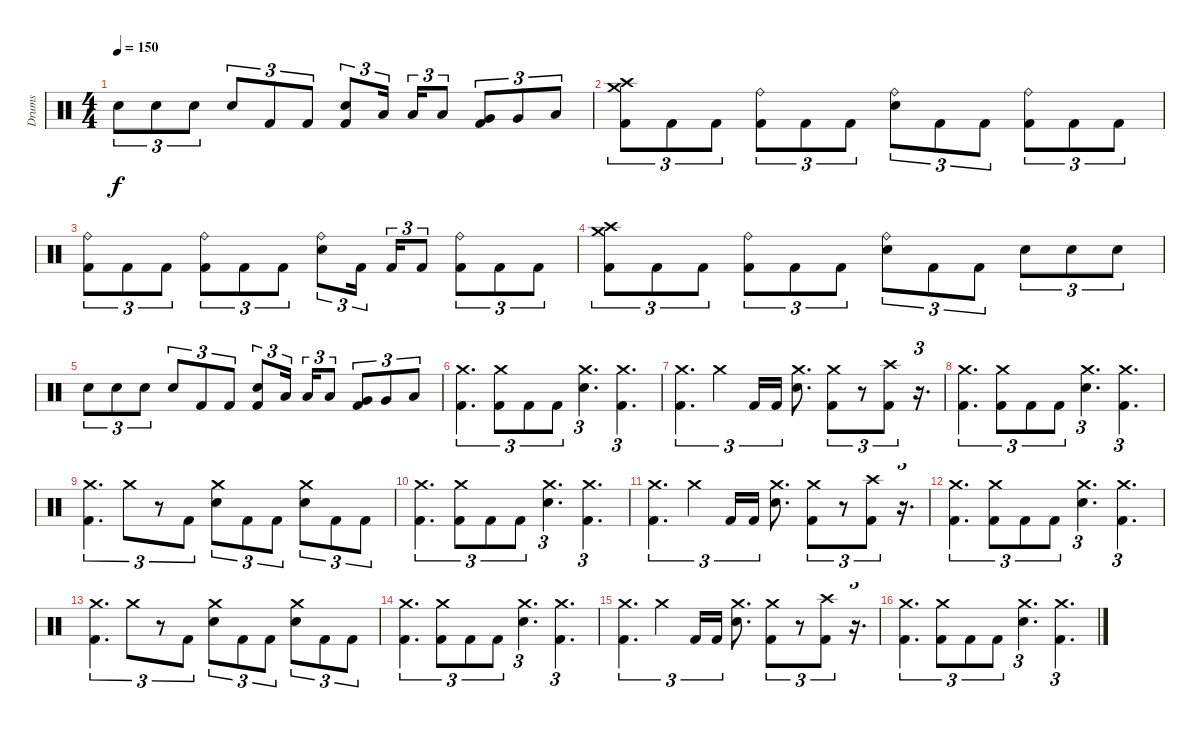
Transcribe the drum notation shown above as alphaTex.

\track ("Drums" "Drums") {instrument percussion}
\staff {score}
\articulation defaults
\ts (4 4)
\tempo 150
\clef neutral
\ks c "Electric Snare (hit)".8{tu (3 2) dy f} "Electric Snare (hit)".8{tu (3 2)} "Electric Snare (hit)".8{tu (3 2)} "Electric Snare (hit)".8{tu (3 2)} "Kick (hit) 2".8{tu (3 2)} "Kick (hit) 2".8{tu (3 2)}
("Electric Snare (hit)" "Kick (hit) 2").8{tu (3 2)} "Low Tom (hit)".16{tu (3 2) beam splitsecondary} "Low Tom (hit)".16{tu (3 2)} "Low Tom (hit)".8{tu (3 2)} ("Very Low Tom (hit)" "Kick (hit) 2").8{tu (3 2)} "Very Low Tom (hit)".8{tu (3 2)} "Low Floor Tom (hit)".8{tu (3 2)} |
("Crash high (hit)" "Crash medium (hit)" "Kick (hit) 2").8{tu (3 2)} "Kick (hit) 2".8{tu (3 2)} "Kick (hit) 2".8{tu (3 2)} ("Ride (bell)" "Kick (hit) 2").8{tu (3 2)} "Kick (hit) 2".8{tu (3 2)} "Kick (hit) 2".8{tu (3 2)} ("Ride (bell)" "Electric Snare (hit)").8{tu (3 2)} "Kick (hit) 2".8{tu (3 2)} "Kick (hit) 2".8{tu (3 2)} ("Ride (bell)" "Kick (hit) 2").8{tu (3 2)} "Kick (hit) 2".8{tu (3 2)} "Kick (hit) 2".8{tu (3 2)} |
("Ride (bell)" "Kick (hit) 2").8{tu (3 2)} "Kick (hit) 2".8{tu (3 2)} "Kick (hit) 2".8{tu (3 2)} ("Ride (bell)" "Kick (hit) 2").8{tu (3 2)} "Kick (hit) 2".8{tu (3 2)} "Kick (hit) 2".8{tu (3 2)} ("Ride (bell)" "Electric Snare (hit)").8{tu (3 2)} "Kick (hit) 2".16{tu (3 2) beam splitsecondary} "Kick (hit) 2".16{tu (3 2)} "Kick (hit) 2".8{tu (3 2)} ("Ride (bell)" "Kick (hit) 2").8{tu (3 2)} "Kick (hit) 2".8{tu (3 2)} "Kick (hit) 2".8{tu (3 2)} |
("Crash high (hit)" "Crash medium (hit)" "Kick (hit) 2").8{tu (3 2)} "Kick (hit) 2".8{tu (3 2)} "Kick (hit) 2".8{tu (3 2)} ("Ride (bell)" "Kick (hit) 2").8{tu (3 2)} "Kick (hit) 2".8{tu (3 2)} "Kick (hit) 2".8{tu (3 2)} ("Ride (bell)" "Electric Snare (hit)").8{tu (3 2)} "Kick (hit) 2".8{tu (3 2)} "Kick (hit) 2".8{tu (3 2)} "Electric Snare (hit)".8{tu (3 2)} "Electric Snare (hit)".8{tu (3 2)} "Electric Snare (hit)".8{tu (3 2)} |
"Electric Snare (hit)".8{tu (3 2)} "Electric Snare (hit)".8{tu (3 2)} "Electric Snare (hit)".8{tu (3 2)} "Electric Snare (hit)".8{tu (3 2)} "Kick (hit) 2".8{tu (3 2)} "Kick (hit) 2".8{tu (3 2)} ("Electric Snare (hit)" "Kick (hit) 2").8{tu (3 2)} "Low Tom (hit)".16{tu (3 2) beam splitsecondary} "Low Tom (hit)".16{tu (3 2)} "Low Tom (hit)".8{tu (3 2)} ("Very Low Tom (hit)" "Kick (hit) 2").8{tu (3 2)} "Very Low Tom (hit)".8{tu (3 2)} "Low Floor Tom (hit)".8{tu (3 2)} |
("Crash medium (hit)" "Kick (hit) 2").4{d tu (3 2)} ("Crash medium (hit)" "Kick (hit) 2").8{tu (3 2)} "Kick (hit) 2".8{tu (3 2)} "Kick (hit) 2".8{tu (3 2)} ("Crash medium (hit)" "Electric Snare (hit)").4{d tu (3 2)} ("Crash medium (hit)" "Kick (hit) 2").4{d tu (3 2)} |
("Crash medium (hit)" "Kick (hit) 2").4{d tu (3 2)} "Crash medium (hit)".4{tu (3 2)} "Kick (hit) 2".16{tu (3 2)} "Kick (hit) 2".16{tu (3 2)} ("Crash medium (hit)" "Electric Snare (hit)").8{d} ("Crash medium (hit)" "Kick (hit) 2").8{tu (3 2)} r.8{tu (3 2)} ("Crash high (hit)" "Kick (hit) 2").8{tu (3 2)} r.16{d tu (3 2)} |
("Crash medium (hit)" "Kick (hit) 2").4{d tu (3 2)} ("Crash medium (hit)" "Kick (hit) 2").8{tu (3 2)} "Kick (hit) 2".8{tu (3 2)} "Kick (hit) 2".8{tu (3 2)} ("Crash medium (hit)" "Electric Snare (hit)").4{d tu (3 2)} ("Crash medium (hit)" "Kick (hit) 2").4{d tu (3 2)} |
("Crash medium (hit)" "Kick (hit) 2").4{d tu (3 2)} "Crash medium (hit)".8{tu (3 2)} r.8{tu (3 2)} "Kick (hit) 2".8{tu (3 2)} ("Crash medium (hit)" "Electric Snare (hit)").8{tu (3 2)} "Kick (hit) 2".8{tu (3 2)} "Kick (hit) 2".8{tu (3 2)} ("Crash medium (hit)" "Electric Snare (hit)").8{tu (3 2)} "Kick (hit) 2".8{tu (3 2)} "Kick (hit) 2".8{tu (3 2)} |
("Crash medium (hit)" "Kick (hit) 2").4{d tu (3 2)} ("Crash medium (hit)" "Kick (hit) 2").8{tu (3 2)} "Kick (hit) 2".8{tu (3 2)} "Kick (hit) 2".8{tu (3 2)} ("Crash medium (hit)" "Electric Snare (hit)").4{d tu (3 2)} ("Crash medium (hit)" "Kick (hit) 2").4{d tu (3 2)} |
("Crash medium (hit)" "Kick (hit) 2").4{d tu (3 2)} "Crash medium (hit)".4{tu (3 2)} "Kick (hit) 2".16{tu (3 2)} "Kick (hit) 2".16{tu (3 2)} ("Crash medium (hit)" "Electric Snare (hit)").8{d} ("Crash medium (hit)" "Kick (hit) 2").8{tu (3 2)} r.8{tu (3 2)} ("Crash high (hit)" "Kick (hit) 2").8{tu (3 2)} r.16{d tu (3 2)} |
("Crash medium (hit)" "Kick (hit) 2").4{d tu (3 2)} ("Crash medium (hit)" "Kick (hit) 2").8{tu (3 2)} "Kick (hit) 2".8{tu (3 2)} "Kick (hit) 2".8{tu (3 2)} ("Crash medium (hit)" "Electric Snare (hit)").4{d tu (3 2)} ("Crash medium (hit)" "Kick (hit) 2").4{d tu (3 2)} |
("Crash medium (hit)" "Kick (hit) 2").4{d tu (3 2)} "Crash medium (hit)".8{tu (3 2)} r.8{tu (3 2)} "Kick (hit) 2".8{tu (3 2)} ("Crash medium (hit)" "Electric Snare (hit)").8{tu (3 2)} "Kick (hit) 2".8{tu (3 2)} "Kick (hit) 2".8{tu (3 2)} ("Crash medium (hit)" "Electric Snare (hit)").8{tu (3 2)} "Kick (hit) 2".8{tu (3 2)} "Kick (hit) 2".8{tu (3 2)} |
("Crash medium (hit)" "Kick (hit) 2").4{d tu (3 2)} ("Crash medium (hit)" "Kick (hit) 2").8{tu (3 2)} "Kick (hit) 2".8{tu (3 2)} "Kick (hit) 2".8{tu (3 2)} ("Crash medium (hit)" "Electric Snare (hit)").4{d tu (3 2)} ("Crash medium (hit)" "Kick (hit) 2").4{d tu (3 2)} |
("Crash medium (hit)" "Kick (hit) 2").4{d tu (3 2)} "Crash medium (hit)".4{tu (3 2)} "Kick (hit) 2".16{tu (3 2)} "Kick (hit) 2".16{tu (3 2)} ("Crash medium (hit)" "Electric Snare (hit)").8{d} ("Crash medium (hit)" "Kick (hit) 2").8{tu (3 2)} r.8{tu (3 2)} ("Crash high (hit)" "Kick (hit) 2").8{tu (3 2)} r.16{d tu (3 2)} |
("Crash medium (hit)" "Kick (hit) 2").4{d tu (3 2)} ("Crash medium (hit)" "Kick (hit) 2").8{tu (3 2)} "Kick (hit) 2".8{tu (3 2)} "Kick (hit) 2".8{tu (3 2)} ("Crash medium (hit)" "Electric Snare (hit)").4{d tu (3 2)} ("Crash medium (hit)" "Kick (hit) 2").4{d tu (3 2)}
